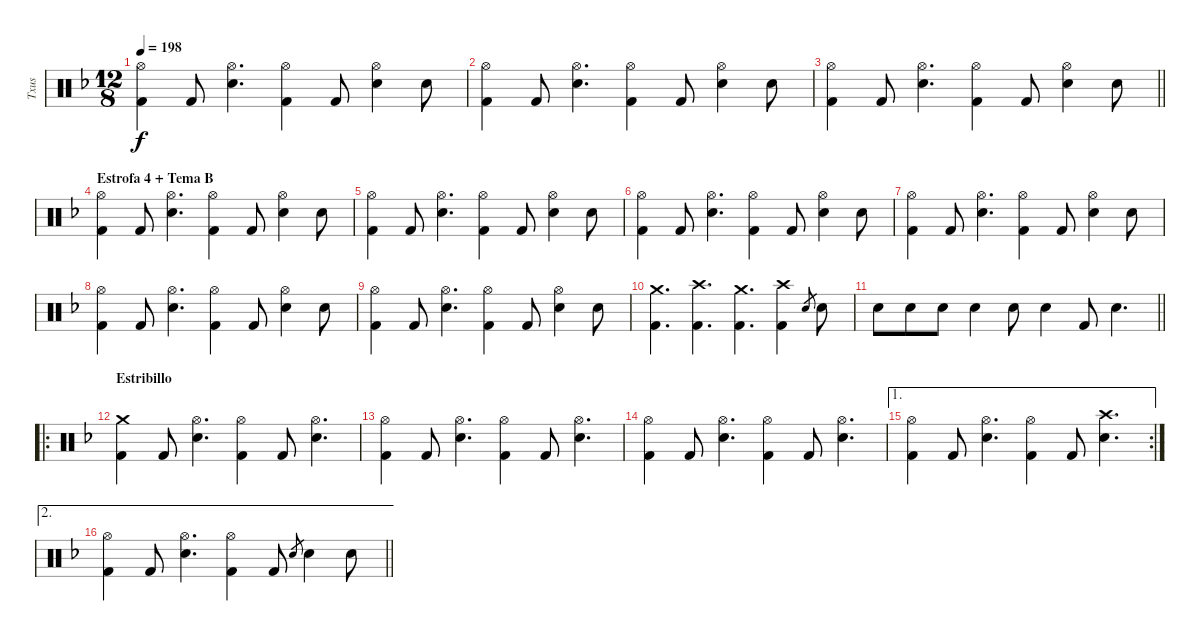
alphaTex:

\track ("Txus" "Txus") {instrument percussion}
\staff {score}
\articulation defaults
\ts (12 8)
\tempo 198
\clef neutral
\ks dminor
("Hi-Hat (open)" "Kick (hit) 2").4{dy f} "Kick (hit) 2".8 ("Hi-Hat (open)" "Snare (hit) 2").4{d} ("Hi-Hat (open)" "Kick (hit) 2").4 "Kick (hit) 2".8 ("Hi-Hat (open)" "Snare (hit) 2").4 "Snare (hit) 2".8 |
("Hi-Hat (open)" "Kick (hit) 2").4 "Kick (hit) 2".8 ("Hi-Hat (open)" "Snare (hit) 2").4{d} ("Hi-Hat (open)" "Kick (hit) 2").4 "Kick (hit) 2".8 ("Hi-Hat (open)" "Snare (hit) 2").4 "Snare (hit) 2".8 |
\barLineRight lightlight
("Hi-Hat (open)" "Kick (hit) 2").4 "Kick (hit) 2".8 ("Hi-Hat (open)" "Snare (hit) 2").4{d} ("Hi-Hat (open)" "Kick (hit) 2").4 "Kick (hit) 2".8 ("Hi-Hat (open)" "Snare (hit) 2").4 "Snare (hit) 2".8 |
\section ("" "Estrofa 4 + Tema B")
("Hi-Hat (open)" "Kick (hit) 2").4 "Kick (hit) 2".8 ("Hi-Hat (open)" "Snare (hit) 2").4{d} ("Hi-Hat (open)" "Kick (hit) 2").4 "Kick (hit) 2".8 ("Hi-Hat (open)" "Snare (hit) 2").4 "Snare (hit) 2".8 |
("Hi-Hat (open)" "Kick (hit) 2").4 "Kick (hit) 2".8 ("Hi-Hat (open)" "Snare (hit) 2").4{d} ("Hi-Hat (open)" "Kick (hit) 2").4 "Kick (hit) 2".8 ("Hi-Hat (open)" "Snare (hit) 2").4 "Snare (hit) 2".8 |
("Hi-Hat (open)" "Kick (hit) 2").4 "Kick (hit) 2".8 ("Hi-Hat (open)" "Snare (hit) 2").4{d} ("Hi-Hat (open)" "Kick (hit) 2").4 "Kick (hit) 2".8 ("Hi-Hat (open)" "Snare (hit) 2").4 "Snare (hit) 2".8 |
("Hi-Hat (open)" "Kick (hit) 2").4 "Kick (hit) 2".8 ("Hi-Hat (open)" "Snare (hit) 2").4{d} ("Hi-Hat (open)" "Kick (hit) 2").4 "Kick (hit) 2".8 ("Hi-Hat (open)" "Snare (hit) 2").4 "Snare (hit) 2".8 |
("Hi-Hat (open)" "Kick (hit) 2").4 "Kick (hit) 2".8 ("Hi-Hat (open)" "Snare (hit) 2").4{d} ("Hi-Hat (open)" "Kick (hit) 2").4 "Kick (hit) 2".8 ("Hi-Hat (open)" "Snare (hit) 2").4 "Snare (hit) 2".8 |
("Hi-Hat (open)" "Kick (hit) 2").4 "Kick (hit) 2".8 ("Hi-Hat (open)" "Snare (hit) 2").4{d} ("Hi-Hat (open)" "Kick (hit) 2").4 "Kick (hit) 2".8 ("Hi-Hat (open)" "Snare (hit) 2").4 "Snare (hit) 2".8 |
("Crash medium (hit)" "Kick (hit) 2").4{d} ("Crash high (hit)" "Kick (hit) 2").4{d} ("Crash medium (hit)" "Kick (hit) 2").4{d} ("Crash high (hit)" "Kick (hit) 2").4 "Snare (hit) 2".8{gr} "Snare (hit) 2".8 |
\barLineRight lightlight "Snare (hit) 2".8 "Snare (hit) 2".8 "Snare (hit) 2".8 "Snare (hit) 2".4 "Snare (hit) 2".8 "Snare (hit) 2".4 "Kick (hit) 2".8 "Snare (hit) 2".4{d}
|
\ro
\section ("" "Estribillo")
("Crash medium (hit)" "Kick (hit) 2").4 "Kick (hit) 2".8 ("Hi-Hat (open)" "Snare (hit) 2").4{d} ("Hi-Hat (open)" "Kick (hit) 2").4 "Kick (hit) 2".8 ("Hi-Hat (open)" "Snare (hit) 2").4{d} |
("Hi-Hat (open)" "Kick (hit) 2").4 "Kick (hit) 2".8 ("Hi-Hat (open)" "Snare (hit) 2").4{d} ("Hi-Hat (open)" "Kick (hit) 2").4 "Kick (hit) 2".8 ("Hi-Hat (open)" "Snare (hit) 2").4{d} |
("Hi-Hat (open)" "Kick (hit) 2").4 "Kick (hit) 2".8 ("Hi-Hat (open)" "Snare (hit) 2").4{d} ("Hi-Hat (open)" "Kick (hit) 2").4 "Kick (hit) 2".8 ("Hi-Hat (open)" "Snare (hit) 2").4{d} |
\ae 1
\rc 2
("Hi-Hat (open)" "Kick (hit) 2").4 "Kick (hit) 2".8 ("Hi-Hat (open)" "Snare (hit) 2").4{d} ("Hi-Hat (open)" "Kick (hit) 2").4 "Kick (hit) 2".8 ("Crash high (hit)" "Snare (hit) 2").4{d} |
\ae 2
\barLineRight lightlight
("Hi-Hat (open)" "Kick (hit) 2").4 "Kick (hit) 2".8 ("Hi-Hat (open)" "Snare (hit) 2").4{d} ("Hi-Hat (open)" "Kick (hit) 2").4 "Kick (hit) 2".8 "Snare (hit) 2".8{gr} "Snare (hit) 2".4 "Snare (hit) 2".8
